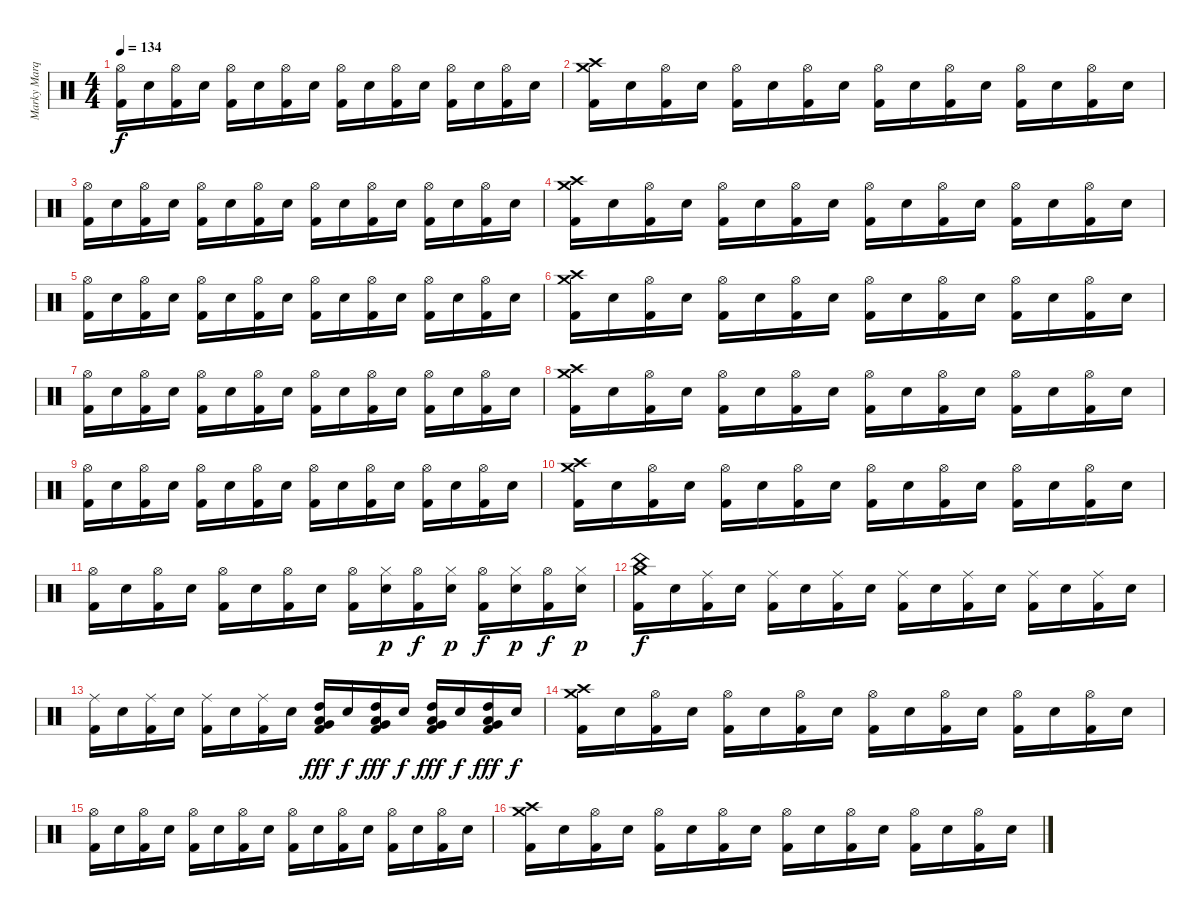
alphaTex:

\track ("Marky Marquis" "Marky Marq") {instrument percussion}
\staff {score}
\articulation defaults
\ts (4 4)
\tempo 134
\clef neutral
\ks c
("Hi-Hat (open)" "Kick (hit) 2").16{dy f} "Electric Snare (hit)".16 ("Hi-Hat (open)" "Kick (hit) 2").16 "Electric Snare (hit)".16 ("Hi-Hat (open)" "Kick (hit) 2").16 "Electric Snare (hit)".16 ("Hi-Hat (open)" "Kick (hit) 2").16 "Electric Snare (hit)".16 ("Hi-Hat (open)" "Kick (hit) 2").16 "Electric Snare (hit)".16 ("Hi-Hat (open)" "Kick (hit) 2").16 "Electric Snare (hit)".16 ("Hi-Hat (open)" "Kick (hit) 2").16 "Electric Snare (hit)".16 ("Hi-Hat (open)" "Kick (hit) 2").16 "Electric Snare (hit)".16 |
("Crash medium (hit)" "Crash high (hit)" "Kick (hit) 2").16 "Electric Snare (hit)".16 ("Hi-Hat (open)" "Kick (hit) 2").16 "Electric Snare (hit)".16 ("Hi-Hat (open)" "Kick (hit) 2").16 "Electric Snare (hit)".16 ("Hi-Hat (open)" "Kick (hit) 2").16 "Electric Snare (hit)".16 ("Hi-Hat (open)" "Kick (hit) 2").16 "Electric Snare (hit)".16 ("Hi-Hat (open)" "Kick (hit) 2").16 "Electric Snare (hit)".16 ("Hi-Hat (open)" "Kick (hit) 2").16 "Electric Snare (hit)".16 ("Hi-Hat (open)" "Kick (hit) 2").16 "Electric Snare (hit)".16 |
("Hi-Hat (open)" "Kick (hit) 2").16 "Electric Snare (hit)".16 ("Hi-Hat (open)" "Kick (hit) 2").16 "Electric Snare (hit)".16 ("Hi-Hat (open)" "Kick (hit) 2").16 "Electric Snare (hit)".16 ("Hi-Hat (open)" "Kick (hit) 2").16 "Electric Snare (hit)".16 ("Hi-Hat (open)" "Kick (hit) 2").16 "Electric Snare (hit)".16 ("Hi-Hat (open)" "Kick (hit) 2").16 "Electric Snare (hit)".16 ("Hi-Hat (open)" "Kick (hit) 2").16 "Electric Snare (hit)".16 ("Hi-Hat (open)" "Kick (hit) 2").16 "Electric Snare (hit)".16 |
("Crash medium (hit)" "Crash high (hit)" "Kick (hit) 2").16 "Electric Snare (hit)".16 ("Hi-Hat (open)" "Kick (hit) 2").16 "Electric Snare (hit)".16 ("Hi-Hat (open)" "Kick (hit) 2").16 "Electric Snare (hit)".16 ("Hi-Hat (open)" "Kick (hit) 2").16 "Electric Snare (hit)".16 ("Hi-Hat (open)" "Kick (hit) 2").16 "Electric Snare (hit)".16 ("Hi-Hat (open)" "Kick (hit) 2").16 "Electric Snare (hit)".16 ("Hi-Hat (open)" "Kick (hit) 2").16 "Electric Snare (hit)".16 ("Hi-Hat (open)" "Kick (hit) 2").16 "Electric Snare (hit)".16 |
("Hi-Hat (open)" "Kick (hit) 2").16 "Electric Snare (hit)".16 ("Hi-Hat (open)" "Kick (hit) 2").16 "Electric Snare (hit)".16 ("Hi-Hat (open)" "Kick (hit) 2").16 "Electric Snare (hit)".16 ("Hi-Hat (open)" "Kick (hit) 2").16 "Electric Snare (hit)".16 ("Hi-Hat (open)" "Kick (hit) 2").16 "Electric Snare (hit)".16 ("Hi-Hat (open)" "Kick (hit) 2").16 "Electric Snare (hit)".16 ("Hi-Hat (open)" "Kick (hit) 2").16 "Electric Snare (hit)".16 ("Hi-Hat (open)" "Kick (hit) 2").16 "Electric Snare (hit)".16 |
("Crash medium (hit)" "Crash high (hit)" "Kick (hit) 2").16 "Electric Snare (hit)".16 ("Hi-Hat (open)" "Kick (hit) 2").16 "Electric Snare (hit)".16 ("Hi-Hat (open)" "Kick (hit) 2").16 "Electric Snare (hit)".16 ("Hi-Hat (open)" "Kick (hit) 2").16 "Electric Snare (hit)".16 ("Hi-Hat (open)" "Kick (hit) 2").16 "Electric Snare (hit)".16 ("Hi-Hat (open)" "Kick (hit) 2").16 "Electric Snare (hit)".16 ("Hi-Hat (open)" "Kick (hit) 2").16 "Electric Snare (hit)".16 ("Hi-Hat (open)" "Kick (hit) 2").16 "Electric Snare (hit)".16 |
("Hi-Hat (open)" "Kick (hit) 2").16 "Electric Snare (hit)".16 ("Hi-Hat (open)" "Kick (hit) 2").16 "Electric Snare (hit)".16 ("Hi-Hat (open)" "Kick (hit) 2").16 "Electric Snare (hit)".16 ("Hi-Hat (open)" "Kick (hit) 2").16 "Electric Snare (hit)".16 ("Hi-Hat (open)" "Kick (hit) 2").16 "Electric Snare (hit)".16 ("Hi-Hat (open)" "Kick (hit) 2").16 "Electric Snare (hit)".16 ("Hi-Hat (open)" "Kick (hit) 2").16 "Electric Snare (hit)".16 ("Hi-Hat (open)" "Kick (hit) 2").16 "Electric Snare (hit)".16 |
("Crash medium (hit)" "Crash high (hit)" "Kick (hit) 2").16 "Electric Snare (hit)".16 ("Hi-Hat (open)" "Kick (hit) 2").16 "Electric Snare (hit)".16 ("Hi-Hat (open)" "Kick (hit) 2").16 "Electric Snare (hit)".16 ("Hi-Hat (open)" "Kick (hit) 2").16 "Electric Snare (hit)".16 ("Hi-Hat (open)" "Kick (hit) 2").16 "Electric Snare (hit)".16 ("Hi-Hat (open)" "Kick (hit) 2").16 "Electric Snare (hit)".16 ("Hi-Hat (open)" "Kick (hit) 2").16 "Electric Snare (hit)".16 ("Hi-Hat (open)" "Kick (hit) 2").16 "Electric Snare (hit)".16 |
("Hi-Hat (open)" "Kick (hit) 2").16 "Electric Snare (hit)".16 ("Hi-Hat (open)" "Kick (hit) 2").16 "Electric Snare (hit)".16 ("Hi-Hat (open)" "Kick (hit) 2").16 "Electric Snare (hit)".16 ("Hi-Hat (open)" "Kick (hit) 2").16 "Electric Snare (hit)".16 ("Hi-Hat (open)" "Kick (hit) 2").16 "Electric Snare (hit)".16 ("Hi-Hat (open)" "Kick (hit) 2").16 "Electric Snare (hit)".16 ("Hi-Hat (open)" "Kick (hit) 2").16 "Electric Snare (hit)".16 ("Hi-Hat (open)" "Kick (hit) 2").16 "Electric Snare (hit)".16 |
("Crash medium (hit)" "Crash high (hit)" "Kick (hit) 2").16 "Electric Snare (hit)".16 ("Hi-Hat (open)" "Kick (hit) 2").16 "Electric Snare (hit)".16 ("Hi-Hat (open)" "Kick (hit) 2").16 "Electric Snare (hit)".16 ("Hi-Hat (open)" "Kick (hit) 2").16 "Electric Snare (hit)".16 ("Hi-Hat (open)" "Kick (hit) 2").16 "Electric Snare (hit)".16 ("Hi-Hat (open)" "Kick (hit) 2").16 "Electric Snare (hit)".16 ("Hi-Hat (open)" "Kick (hit) 2").16 "Electric Snare (hit)".16 ("Hi-Hat (open)" "Kick (hit) 2").16 "Electric Snare (hit)".16 |
("Hi-Hat (open)" "Kick (hit) 2").16 "Electric Snare (hit)".16 ("Hi-Hat (open)" "Kick (hit) 2").16 "Electric Snare (hit)".16 ("Hi-Hat (open)" "Kick (hit) 2").16 "Electric Snare (hit)".16 ("Hi-Hat (open)" "Kick (hit) 2").16 "Electric Snare (hit)".16 ("Hi-Hat (open)" "Kick (hit) 2").16 ("Hi-Hat (closed)" "Electric Snare (hit)").16{dy p} ("Hi-Hat (open)" "Kick (hit) 2").16{dy f} ("Hi-Hat (closed)" "Electric Snare (hit)").16{dy p} ("Hi-Hat (open)" "Kick (hit) 2").16{dy f} ("Hi-Hat (closed)" "Electric Snare (hit)").16{dy p} ("Hi-Hat (open)" "Kick (hit) 2").16{dy f} ("Hi-Hat (closed)" "Electric Snare (hit)").16{dy p} |
("Crash medium (hit)" "China (hit)" "Kick (hit) 2").16{dy f} "Electric Snare (hit)".16 ("Ride (middle)" "Kick (hit) 2").16 "Electric Snare (hit)".16 ("Ride (middle)" "Kick (hit) 2").16 "Electric Snare (hit)".16 ("Ride (middle)" "Kick (hit) 2").16 "Electric Snare (hit)".16 ("Ride (middle)" "Kick (hit) 2").16 "Electric Snare (hit)".16 ("Ride (middle)" "Kick (hit) 2").16 "Electric Snare (hit)".16 ("Ride (middle)" "Kick (hit) 2").16 "Electric Snare (hit)".16 ("Ride (middle)" "Kick (hit) 2").16 "Electric Snare (hit)".16 |
("Ride (middle)" "Kick (hit) 2").16 "Electric Snare (hit)".16 ("Ride (middle)" "Kick (hit) 2").16 "Electric Snare (hit)".16 ("Ride (middle)" "Kick (hit) 2").16 "Electric Snare (hit)".16 ("Ride (middle)" "Kick (hit) 2").16 "Electric Snare (hit)".16 ("High Tom (hit)" "Low Tom (hit)" "Very Low Tom (hit)" "Kick (hit) 2").16{dy fff} "Electric Snare (hit)".16{dy f} ("High Tom (hit)" "Low Tom (hit)" "Very Low Tom (hit)" "Kick (hit) 2").16{dy fff} "Electric Snare (hit)".16{dy f} ("High Tom (hit)" "Low Tom (hit)" "Very Low Tom (hit)" "Kick (hit) 2").16{dy fff} "Electric Snare (hit)".16{dy f} ("High Tom (hit)" "Low Tom (hit)" "Very Low Tom (hit)" "Kick (hit) 2").16{dy fff} "Electric Snare (hit)".16{dy f} |
("Crash medium (hit)" "Crash high (hit)" "Kick (hit) 2").16 "Electric Snare (hit)".16 ("Hi-Hat (open)" "Kick (hit) 2").16 "Electric Snare (hit)".16 ("Hi-Hat (open)" "Kick (hit) 2").16 "Electric Snare (hit)".16 ("Hi-Hat (open)" "Kick (hit) 2").16 "Electric Snare (hit)".16 ("Hi-Hat (open)" "Kick (hit) 2").16 "Electric Snare (hit)".16 ("Hi-Hat (open)" "Kick (hit) 2").16 "Electric Snare (hit)".16 ("Hi-Hat (open)" "Kick (hit) 2").16 "Electric Snare (hit)".16 ("Hi-Hat (open)" "Kick (hit) 2").16 "Electric Snare (hit)".16 |
("Hi-Hat (open)" "Kick (hit) 2").16 "Electric Snare (hit)".16 ("Hi-Hat (open)" "Kick (hit) 2").16 "Electric Snare (hit)".16 ("Hi-Hat (open)" "Kick (hit) 2").16 "Electric Snare (hit)".16 ("Hi-Hat (open)" "Kick (hit) 2").16 "Electric Snare (hit)".16 ("Hi-Hat (open)" "Kick (hit) 2").16 "Electric Snare (hit)".16 ("Hi-Hat (open)" "Kick (hit) 2").16 "Electric Snare (hit)".16 ("Hi-Hat (open)" "Kick (hit) 2").16 "Electric Snare (hit)".16 ("Hi-Hat (open)" "Kick (hit) 2").16 "Electric Snare (hit)".16 |
("Crash medium (hit)" "Crash high (hit)" "Kick (hit) 2").16 "Electric Snare (hit)".16 ("Hi-Hat (open)" "Kick (hit) 2").16 "Electric Snare (hit)".16 ("Hi-Hat (open)" "Kick (hit) 2").16 "Electric Snare (hit)".16 ("Hi-Hat (open)" "Kick (hit) 2").16 "Electric Snare (hit)".16 ("Hi-Hat (open)" "Kick (hit) 2").16 "Electric Snare (hit)".16 ("Hi-Hat (open)" "Kick (hit) 2").16 "Electric Snare (hit)".16 ("Hi-Hat (open)" "Kick (hit) 2").16 "Electric Snare (hit)".16 ("Hi-Hat (open)" "Kick (hit) 2").16 "Electric Snare (hit)".16
